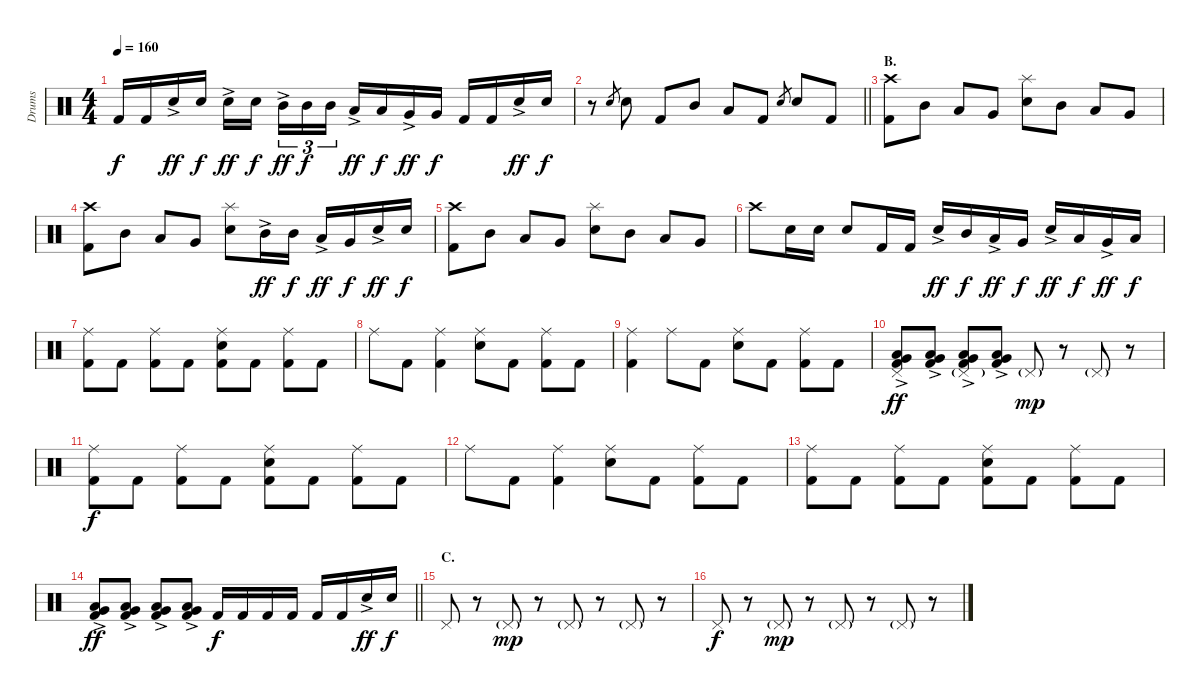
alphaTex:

\track ("Drums" "Drums") {instrument percussion}
\staff {score}
\articulation defaults
\ts (4 4)
\tempo 160
\clef neutral
\ks c "Kick (hit) 2".16{dy f} "Kick (hit) 2".16 "Electric Snare (hit)"{ac}.16{dy ff} "Electric Snare (hit)".16{dy f} "Electric Snare (hit)"{ac}.16{dy ff} "Electric Snare (hit)".16{dy f beam splitsecondary} "Mid Tom (hit)"{ac}.16{tu (3 2) dy ff} "Mid Tom (hit)".16{tu (3 2) dy f} "Mid Tom (hit)".16{tu (3 2)} "Low Tom (hit)"{ac}.16{dy ff} "Low Tom (hit)".16{dy f} "Very Low Tom (hit)"{ac}.16{dy ff} "Very Low Tom (hit)".16{dy f} "Kick (hit) 2".16 "Kick (hit) 2".16 "Electric Snare (hit)"{ac}.16{dy ff} "Electric Snare (hit)".16{dy f}
|
\barLineRight lightlight
r.8 "Electric Snare (hit)".8{gr} "Electric Snare (hit)".8 "Kick (hit) 2".8 "Mid Tom (hit)".8 "Low Tom (hit)".8 "Kick (hit) 2".8 "Electric Snare (hit)".8{gr} "Electric Snare (hit)".8 "Kick (hit) 2".8 |
\section ("" "B.")
("Crash high (hit)" "Kick (hit) 2").8 "Mid Tom (hit)".8 "Low Tom (hit)".8 "Very Low Tom (hit)".8 ("Splash (hit)" "Electric Snare (hit)").8 "Mid Tom (hit)".8 "Low Tom (hit)".8 "Very Low Tom (hit)".8 |
("Crash high (hit)" "Kick (hit) 2").8 "Mid Tom (hit)".8 "Low Tom (hit)".8 "Very Low Tom (hit)".8 ("Splash (hit)" "Electric Snare (hit)").8 "Mid Tom (hit)"{ac}.16{dy ff} "Mid Tom (hit)".16{dy f} "Low Tom (hit)"{ac}.16{dy ff} "Very Low Tom (hit)".16{dy f} "Electric Snare (hit)"{ac}.16{dy ff} "Electric Snare (hit)".16{dy f} |
("Crash high (hit)" "Kick (hit) 2").8 "Mid Tom (hit)".8 "Low Tom (hit)".8 "Very Low Tom (hit)".8 ("Splash (hit)" "Electric Snare (hit)").8 "Mid Tom (hit)".8 "Low Tom (hit)".8 "Very Low Tom (hit)".8 |
"Crash high (hit)".8 "Electric Snare (hit)".16 "Electric Snare (hit)".16 "Electric Snare (hit)".8 "Kick (hit) 2".16 "Kick (hit) 2".16 "Electric Snare (hit)"{ac}.16{dy ff} "Mid Tom (hit)".16{dy f} "Low Tom (hit)"{ac}.16{dy ff} "Very Low Tom (hit)".16{dy f} "Electric Snare (hit)"{ac}.16{dy ff} "Low Tom (hit)".16{dy f} "Very Low Tom (hit)"{ac}.16{dy ff} "Low Floor Tom (hit)".16{dy f} |
("Ride (middle)" "Kick (hit) 2").8 "Kick (hit) 2".8 ("Ride (middle)" "Kick (hit) 2").8 "Kick (hit) 2".8 ("Ride (middle)" "Electric Snare (hit)" "Kick (hit) 2").8 "Kick (hit) 2".8 ("Ride (middle)" "Kick (hit) 2").8 "Kick (hit) 2".8 |
"Ride (middle)".8 "Kick (hit) 2".8 ("Ride (middle)" "Kick (hit) 2").4 ("Ride (middle)" "Electric Snare (hit)").8 "Kick (hit) 2".8 ("Ride (middle)" "Kick (hit) 2").8 "Kick (hit) 2".8 |
("Ride (middle)" "Kick (hit) 2").4 "Ride (middle)".8 "Kick (hit) 2".8 ("Ride (middle)" "Electric Snare (hit)").8 "Kick (hit) 2".8 ("Ride (middle)" "Kick (hit) 2").8 "Kick (hit) 2".8 |
("Pedal Hi-Hat (hit)" "Very Low Tom (hit)" "Low Floor Tom (hit)"{ac} "Kick (hit) 2").8{dy ff} ("Very Low Tom (hit)" "Low Floor Tom (hit)"{ac} "Kick (hit) 2").8 ("Pedal Hi-Hat (hit)"{g} "Very Low Tom (hit)" "Low Floor Tom (hit)"{ac} "Kick (hit) 2").8 ("Very Low Tom (hit)" "Low Floor Tom (hit)"{ac} "Kick (hit) 2").8 "Pedal Hi-Hat (hit)"{g}.8{dy mp} r.8 "Pedal Hi-Hat (hit)"{g}.8 r.8 |
("Ride (middle)" "Kick (hit) 2").8{dy f} "Kick (hit) 2".8 ("Ride (middle)" "Kick (hit) 2").8 "Kick (hit) 2".8 ("Ride (middle)" "Electric Snare (hit)" "Kick (hit) 2").8 "Kick (hit) 2".8 ("Ride (middle)" "Kick (hit) 2").8 "Kick (hit) 2".8 |
"Ride (middle)".8 "Kick (hit) 2".8 ("Ride (middle)" "Kick (hit) 2").4 ("Ride (middle)" "Electric Snare (hit)").8 "Kick (hit) 2".8 ("Ride (middle)" "Kick (hit) 2").8 "Kick (hit) 2".8 |
("Ride (middle)" "Kick (hit) 2").8 "Kick (hit) 2".8 ("Ride (middle)" "Kick (hit) 2").8 "Kick (hit) 2".8 ("Ride (middle)" "Electric Snare (hit)" "Kick (hit) 2").8 "Kick (hit) 2".8 ("Ride (middle)" "Kick (hit) 2").8 "Kick (hit) 2".8 |
\barLineRight lightlight
("Very Low Tom (hit)" "Low Floor Tom (hit)"{ac} "Kick (hit) 2").8{dy ff} ("Very Low Tom (hit)" "Low Floor Tom (hit)"{ac} "Kick (hit) 2").8 ("Very Low Tom (hit)" "Low Floor Tom (hit)"{ac} "Kick (hit) 2").8 ("Very Low Tom (hit)" "Low Floor Tom (hit)"{ac} "Kick (hit) 2").8 "Kick (hit) 2".16{dy f} "Kick (hit) 2".16 "Kick (hit) 2".16 "Kick (hit) 2".16 "Kick (hit) 2".16 "Kick (hit) 2".16 "Electric Snare (hit)"{ac}.16{dy ff} "Electric Snare (hit)".16{dy f} |
\section ("" "C.")
"Pedal Hi-Hat (hit)".8 r.8 "Pedal Hi-Hat (hit)"{g}.8{dy mp} r.8 "Pedal Hi-Hat (hit)"{g}.8 r.8 "Pedal Hi-Hat (hit)"{g}.8 r.8 |
"Pedal Hi-Hat (hit)".8{dy f} r.8 "Pedal Hi-Hat (hit)"{g}.8{dy mp} r.8 "Pedal Hi-Hat (hit)"{g}.8 r.8 "Pedal Hi-Hat (hit)"{g}.8 r.8
